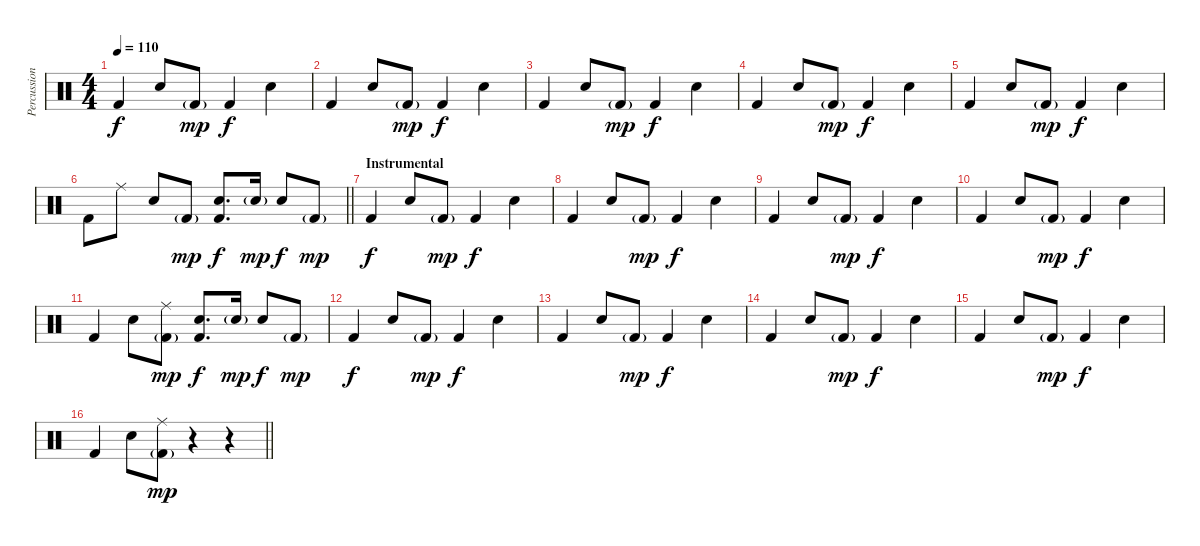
\track ("Percussion" "Percussion") {instrument percussion}
\staff {score}
\articulation defaults
\ts (4 4)
\tempo 110
\clef neutral
\ks c "Kick (hit) 2".4{dy f} "Snare (hit) 2".8 "Kick (hit) 2"{g}.8{dy mp} "Kick (hit) 2".4{dy f} "Snare (hit) 2".4
|
"Kick (hit) 2".4 "Snare (hit) 2".8 "Kick (hit) 2"{g}.8{dy mp} "Kick (hit) 2".4{dy f} "Snare (hit) 2".4 |
"Kick (hit) 2".4 "Snare (hit) 2".8 "Kick (hit) 2"{g}.8{dy mp} "Kick (hit) 2".4{dy f} "Snare (hit) 2".4 |
"Kick (hit) 2".4 "Snare (hit) 2".8 "Kick (hit) 2"{g}.8{dy mp} "Kick (hit) 2".4{dy f} "Snare (hit) 2".4 |
"Kick (hit) 2".4 "Snare (hit) 2".8 "Kick (hit) 2"{g}.8{dy mp} "Kick (hit) 2".4{dy f} "Snare (hit) 2".4 |
\barLineRight lightlight "Kick (hit) 2".8 "Ride (middle)".8 "Snare (hit) 2".8 "Kick (hit) 2"{g}.8{dy mp}
("Snare (hit) 2" "Kick (hit) 2").8{d dy f} "Snare (hit) 2"{g}.16{dy mp} "Snare (hit) 2".8{dy f} "Kick (hit) 2"{g}.8{dy mp} |
\section ("" "Instrumental")
"Kick (hit) 2".4{dy f} "Snare (hit) 2".8 "Kick (hit) 2"{g}.8{dy mp} "Kick (hit) 2".4{dy f} "Snare (hit) 2".4 |
"Kick (hit) 2".4 "Snare (hit) 2".8 "Kick (hit) 2"{g}.8{dy mp} "Kick (hit) 2".4{dy f} "Snare (hit) 2".4 |
"Kick (hit) 2".4 "Snare (hit) 2".8 "Kick (hit) 2"{g}.8{dy mp} "Kick (hit) 2".4{dy f} "Snare (hit) 2".4 |
"Kick (hit) 2".4 "Snare (hit) 2".8 "Kick (hit) 2"{g}.8{dy mp} "Kick (hit) 2".4{dy f} "Snare (hit) 2".4 |
"Kick (hit) 2".4 "Snare (hit) 2".8 ("Ride (middle)" "Kick (hit) 2"{g}).8{dy mp} ("Snare (hit) 2" "Kick (hit) 2").8{d dy f} "Snare (hit) 2"{g}.16{dy mp} "Snare (hit) 2".8{dy f} "Kick (hit) 2"{g}.8{dy mp} |
"Kick (hit) 2".4{dy f} "Snare (hit) 2".8 "Kick (hit) 2"{g}.8{dy mp} "Kick (hit) 2".4{dy f} "Snare (hit) 2".4 |
"Kick (hit) 2".4 "Snare (hit) 2".8 "Kick (hit) 2"{g}.8{dy mp} "Kick (hit) 2".4{dy f} "Snare (hit) 2".4 |
"Kick (hit) 2".4 "Snare (hit) 2".8 "Kick (hit) 2"{g}.8{dy mp} "Kick (hit) 2".4{dy f} "Snare (hit) 2".4 |
"Kick (hit) 2".4 "Snare (hit) 2".8 "Kick (hit) 2"{g}.8{dy mp} "Kick (hit) 2".4{dy f} "Snare (hit) 2".4 |
\barLineRight lightlight "Kick (hit) 2".4 "Snare (hit) 2".8
("Ride (middle)" "Kick (hit) 2"{g}).8{dy mp} r.4 r.4
